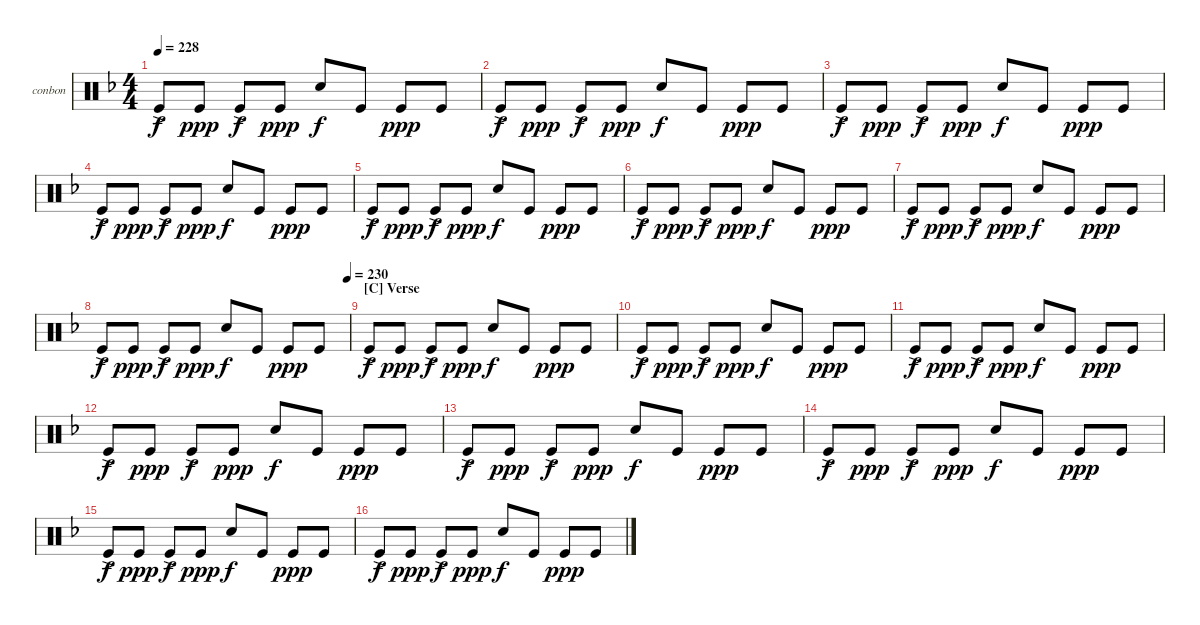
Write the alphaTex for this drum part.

\defaultSystemsLayout 4
\bracketExtendMode groupsimilarinstruments
\firstSystemTrackNameOrientation horizontal
\otherSystemsTrackNameOrientation horizontal
\track ("Bongos N Congas" "conbon") {instrument percussion}
\staff {score}
\articulation defaults
\ts (4 4)
\tempo 228
\clef neutral
\ks dminor "Kick (hit)"{ac}.8{dy f} "Kick (hit)".8{dy ppp} "Kick (hit)"{ac}.8{dy f} "Kick (hit)".8{dy ppp} "Snare (hit) 2".8{dy f} "Kick (hit)".8 "Kick (hit)".8{dy ppp} "Kick (hit)".8
|
"Kick (hit)"{ac}.8{dy f} "Kick (hit)".8{dy ppp} "Kick (hit)"{ac}.8{dy f} "Kick (hit)".8{dy ppp} "Snare (hit) 2".8{dy f} "Kick (hit)".8 "Kick (hit)".8{dy ppp} "Kick (hit)".8 |
"Kick (hit)"{ac}.8{dy f} "Kick (hit)".8{dy ppp} "Kick (hit)"{ac}.8{dy f} "Kick (hit)".8{dy ppp} "Snare (hit) 2".8{dy f} "Kick (hit)".8 "Kick (hit)".8{dy ppp} "Kick (hit)".8 |
"Kick (hit)"{ac}.8{dy f} "Kick (hit)".8{dy ppp} "Kick (hit)"{ac}.8{dy f} "Kick (hit)".8{dy ppp} "Snare (hit) 2".8{dy f} "Kick (hit)".8 "Kick (hit)".8{dy ppp} "Kick (hit)".8 |
"Kick (hit)"{ac}.8{dy f} "Kick (hit)".8{dy ppp} "Kick (hit)"{ac}.8{dy f} "Kick (hit)".8{dy ppp} "Snare (hit) 2".8{dy f} "Kick (hit)".8 "Kick (hit)".8{dy ppp} "Kick (hit)".8 |
"Kick (hit)"{ac}.8{dy f} "Kick (hit)".8{dy ppp} "Kick (hit)"{ac}.8{dy f} "Kick (hit)".8{dy ppp} "Snare (hit) 2".8{dy f} "Kick (hit)".8 "Kick (hit)".8{dy ppp} "Kick (hit)".8 |
"Kick (hit)"{ac}.8{dy f} "Kick (hit)".8{dy ppp} "Kick (hit)"{ac}.8{dy f} "Kick (hit)".8{dy ppp} "Snare (hit) 2".8{dy f} "Kick (hit)".8 "Kick (hit)".8{dy ppp} "Kick (hit)".8 |
\tempo (230 0.99375)
"Kick (hit)"{ac}.8{dy f} "Kick (hit)".8{dy ppp} "Kick (hit)"{ac}.8{dy f} "Kick (hit)".8{dy ppp} "Snare (hit) 2".8{dy f} "Kick (hit)".8 "Kick (hit)".8{dy ppp} "Kick (hit)".8 |
\section ("C" "Verse")
"Kick (hit)"{ac}.8{dy f} "Kick (hit)".8{dy ppp} "Kick (hit)"{ac}.8{dy f} "Kick (hit)".8{dy ppp} "Snare (hit) 2".8{dy f} "Kick (hit)".8 "Kick (hit)".8{dy ppp} "Kick (hit)".8 |
"Kick (hit)"{ac}.8{dy f} "Kick (hit)".8{dy ppp} "Kick (hit)"{ac}.8{dy f} "Kick (hit)".8{dy ppp} "Snare (hit) 2".8{dy f} "Kick (hit)".8 "Kick (hit)".8{dy ppp} "Kick (hit)".8 |
"Kick (hit)"{ac}.8{dy f} "Kick (hit)".8{dy ppp} "Kick (hit)"{ac}.8{dy f} "Kick (hit)".8{dy ppp} "Snare (hit) 2".8{dy f} "Kick (hit)".8 "Kick (hit)".8{dy ppp} "Kick (hit)".8 |
"Kick (hit)"{ac}.8{dy f} "Kick (hit)".8{dy ppp} "Kick (hit)"{ac}.8{dy f} "Kick (hit)".8{dy ppp} "Snare (hit) 2".8{dy f} "Kick (hit)".8 "Kick (hit)".8{dy ppp} "Kick (hit)".8 |
"Kick (hit)"{ac}.8{dy f} "Kick (hit)".8{dy ppp} "Kick (hit)"{ac}.8{dy f} "Kick (hit)".8{dy ppp} "Snare (hit) 2".8{dy f} "Kick (hit)".8 "Kick (hit)".8{dy ppp} "Kick (hit)".8 |
"Kick (hit)"{ac}.8{dy f} "Kick (hit)".8{dy ppp} "Kick (hit)"{ac}.8{dy f} "Kick (hit)".8{dy ppp} "Snare (hit) 2".8{dy f} "Kick (hit)".8 "Kick (hit)".8{dy ppp} "Kick (hit)".8 |
"Kick (hit)"{ac}.8{dy f} "Kick (hit)".8{dy ppp} "Kick (hit)"{ac}.8{dy f} "Kick (hit)".8{dy ppp} "Snare (hit) 2".8{dy f} "Kick (hit)".8 "Kick (hit)".8{dy ppp} "Kick (hit)".8 |
"Kick (hit)"{ac}.8{dy f} "Kick (hit)".8{dy ppp} "Kick (hit)"{ac}.8{dy f} "Kick (hit)".8{dy ppp} "Snare (hit) 2".8{dy f} "Kick (hit)".8 "Kick (hit)".8{dy ppp} "Kick (hit)".8
